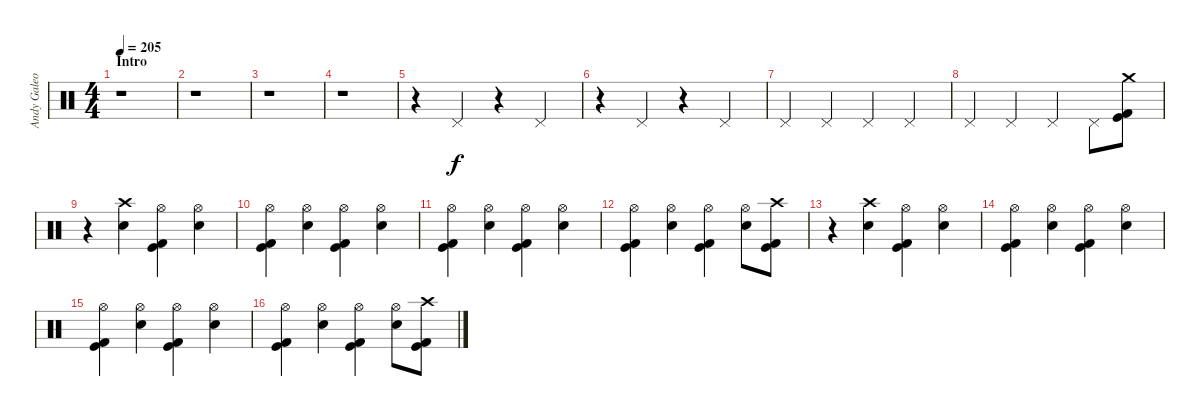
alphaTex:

\track ("Andy Galeon - Drums" "Andy Galeo") {instrument percussion}
\staff {score}
\articulation defaults
\ts (4 4)
\section ("" "Intro")
\tempo 205
\clef neutral
\ks c
r.1{dy f} |
r.1 |
r.1 |
r.1 |
r.4 "Pedal Hi-Hat (hit)".4 r.4 "Pedal Hi-Hat (hit)".4 |
r.4 "Pedal Hi-Hat (hit)".4 r.4 "Pedal Hi-Hat (hit)".4 |
"Pedal Hi-Hat (hit)".4 "Pedal Hi-Hat (hit)".4 "Pedal Hi-Hat (hit)".4 "Pedal Hi-Hat (hit)".4 |
"Pedal Hi-Hat (hit)".4 "Pedal Hi-Hat (hit)".4 "Pedal Hi-Hat (hit)".4 "Pedal Hi-Hat (hit)".8 ("Crash medium (hit)" "Kick (hit) 2" "Kick (hit)").8 |
r.4 ("Crash high (hit)" "Electric Snare (hit)").4 ("Hi-Hat (open)" "Kick (hit) 2" "Kick (hit)").4 ("Hi-Hat (open)" "Electric Snare (hit)").4 |
("Hi-Hat (open)" "Kick (hit) 2" "Kick (hit)").4 ("Hi-Hat (open)" "Electric Snare (hit)").4 ("Hi-Hat (open)" "Kick (hit) 2" "Kick (hit)").4 ("Hi-Hat (open)" "Electric Snare (hit)").4 |
("Hi-Hat (open)" "Kick (hit) 2" "Kick (hit)").4 ("Hi-Hat (open)" "Electric Snare (hit)").4 ("Hi-Hat (open)" "Kick (hit) 2" "Kick (hit)").4 ("Hi-Hat (open)" "Electric Snare (hit)").4 |
("Hi-Hat (open)" "Kick (hit) 2" "Kick (hit)").4 ("Hi-Hat (open)" "Electric Snare (hit)").4 ("Hi-Hat (open)" "Kick (hit) 2" "Kick (hit)").4 ("Hi-Hat (open)" "Electric Snare (hit)").8 ("Crash high (hit)" "Kick (hit) 2" "Kick (hit)").8 |
r.4 ("Crash high (hit)" "Electric Snare (hit)").4 ("Hi-Hat (open)" "Kick (hit) 2" "Kick (hit)").4 ("Hi-Hat (open)" "Electric Snare (hit)").4 |
("Hi-Hat (open)" "Kick (hit) 2" "Kick (hit)").4 ("Hi-Hat (open)" "Electric Snare (hit)").4 ("Hi-Hat (open)" "Kick (hit) 2" "Kick (hit)").4 ("Hi-Hat (open)" "Electric Snare (hit)").4 |
("Hi-Hat (open)" "Kick (hit) 2" "Kick (hit)").4 ("Hi-Hat (open)" "Electric Snare (hit)").4 ("Hi-Hat (open)" "Kick (hit) 2" "Kick (hit)").4 ("Hi-Hat (open)" "Electric Snare (hit)").4 |
("Hi-Hat (open)" "Kick (hit) 2" "Kick (hit)").4 ("Hi-Hat (open)" "Electric Snare (hit)").4 ("Hi-Hat (open)" "Kick (hit) 2" "Kick (hit)").4 ("Hi-Hat (open)" "Electric Snare (hit)").8 ("Crash high (hit)" "Kick (hit) 2" "Kick (hit)").8
